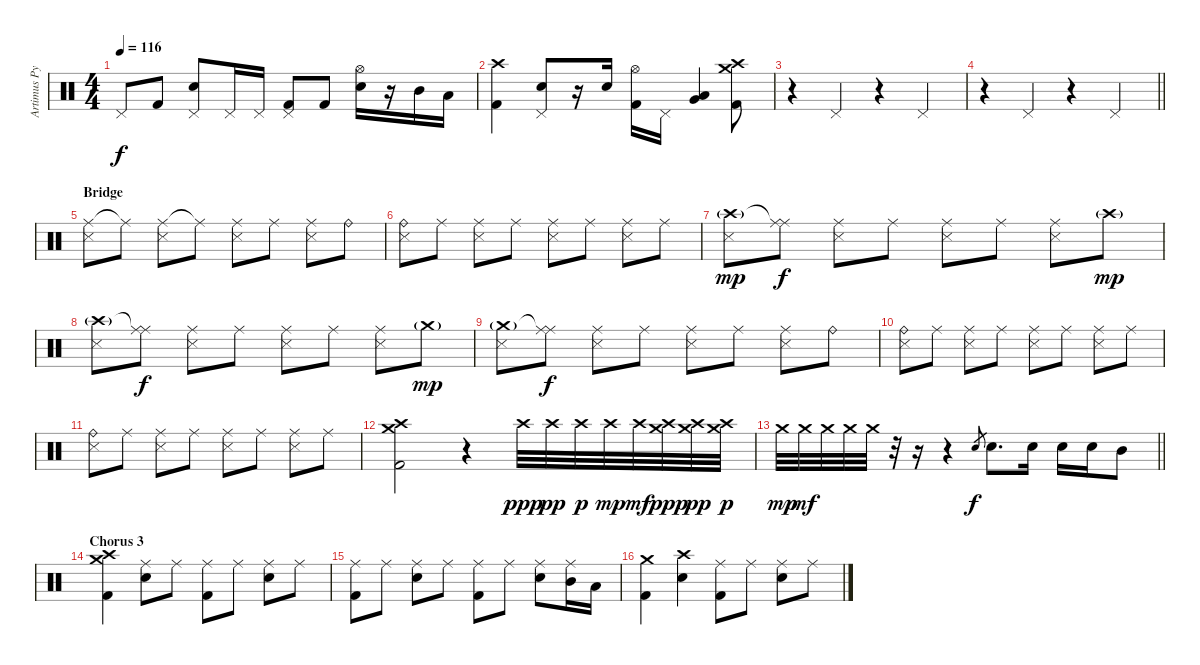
\track ("Artimus Pyle - Drums and Percussion" "Artimus Py") {instrument percussion}
\staff {score}
\articulation defaults
\ts (4 4)
\tempo 116
\clef neutral
\ks c "Pedal Hi-Hat (hit)".8{dy f} "Kick (hit) 2".8
("Snare (hit) 2" "Pedal Hi-Hat (hit)").8 "Pedal Hi-Hat (hit)".16 "Pedal Hi-Hat (hit)".16 ("Pedal Hi-Hat (hit)" "Kick (hit) 2").8 "Kick (hit) 2".8 ("Snare (hit) 2" "Hi-Hat (open)").16 r.16 "Mid Tom (hit)".16 "Low Floor Tom (hit)".16 |
("Crash high (hit)" "Kick (hit) 2").4 ("Snare (hit) 2" "Pedal Hi-Hat (hit)").8 r.16 "Snare (hit) 2".16 ("Hi-Hat (open)" "Kick (hit) 2").16 "Pedal Hi-Hat (hit)".16 ("Low Floor Tom (hit)" "Very Low Tom (hit)").4 ("Crash medium (hit)" "Crash high (hit)" "Kick (hit) 2").8 |
r.4 "Pedal Hi-Hat (hit)".4 r.4 "Pedal Hi-Hat (hit)".4 |
\barLineRight lightlight
r.4 "Pedal Hi-Hat (hit)".4 r.4 "Pedal Hi-Hat (hit)".4 |
\section ("" "Bridge")
("Ride (middle)" "Snare (side stick) 3").8 "Ride (middle)"{t}.8 ("Ride (middle)" "Snare (side stick) 3").8 "Ride (middle)"{t}.8 ("Ride (middle)" "Snare (side stick) 3").8 "Ride (middle)".8 ("Ride (middle)" "Snare (side stick) 3").8 "Ride (bell)".8 |
("Ride (bell)" "Snare (side stick) 3").8 "Ride (middle)".8 ("Ride (middle)" "Snare (side stick) 3").8 "Ride (middle)".8 ("Ride (middle)" "Snare (side stick) 3").8 "Ride (middle)".8 ("Ride (middle)" "Snare (side stick) 3").8 "Ride (middle)".8 |
("Crash high (hit)"{g} "Snare (side stick) 3").8{dy mp} ("Ride (middle)"{t} "Ride (middle)").8{dy f} ("Ride (middle)" "Snare (side stick) 3").8 "Ride (middle)".8 ("Ride (middle)" "Snare (side stick) 3").8 "Ride (middle)".8 ("Ride (middle)" "Snare (side stick) 3").8 "Crash high (hit)"{g}.8{dy mp} |
("Crash high (hit)"{g} "Snare (side stick) 3").8 ("Ride (middle)"{t} "Ride (middle)").8{dy f} ("Ride (middle)" "Snare (side stick) 3").8 "Ride (middle)".8 ("Ride (middle)" "Snare (side stick) 3").8 "Ride (middle)".8 ("Ride (middle)" "Snare (side stick) 3").8 "Crash medium (hit)"{g}.8{dy mp} |
("Crash medium (hit)"{g} "Snare (side stick) 3").8 ("Ride (middle)"{t} "Ride (middle)").8{dy f} ("Ride (middle)" "Snare (side stick) 3").8 "Ride (middle)".8 ("Ride (middle)" "Snare (side stick) 3").8 "Ride (middle)".8 ("Ride (middle)" "Snare (side stick) 3").8 "Ride (bell)".8 |
("Ride (bell)" "Snare (side stick) 3").8 "Ride (middle)".8 ("Ride (middle)" "Snare (side stick) 3").8 "Ride (middle)".8 ("Ride (middle)" "Snare (side stick) 3").8 "Ride (middle)".8 ("Ride (middle)" "Snare (side stick) 3").8 "Ride (middle)".8 |
("Ride (bell)" "Snare (side stick) 3").8 "Ride (middle)".8 ("Ride (middle)" "Snare (side stick) 3").8 "Ride (middle)".8 ("Ride (middle)" "Snare (side stick) 3").8 "Ride (middle)".8 ("Ride (middle)" "Snare (side stick) 3").8 "Ride (middle)".8 |
("Crash medium (hit)" "Crash high (hit)" "Kick (hit) 2").2 r.4 "Crash high (hit)".32{dy ppp} "Crash high (hit)".32{dy pp} "Crash high (hit)".32{dy p} "Crash high (hit)".32{dy mp} "Crash high (hit)".32{dy mf} ("Crash high (hit)" "Crash medium (hit)").32{dy ppp} ("Crash high (hit)" "Crash medium (hit)").32{dy pp} ("Crash high (hit)" "Crash medium (hit)").32{dy p} |
\barLineRight lightlight "Crash medium (hit)".32{dy mp} "Crash medium (hit)".32{dy mf} "Crash medium (hit)".32 "Crash medium (hit)".32 "Crash medium (hit)".32
r.32 r.16 r.4 "Snare (hit) 2".8{gr dy f} "Snare (hit) 2".8{d} "Snare (hit) 2".16 "Snare (hit) 2".16 "Snare (hit) 2".16 "Mid Tom (hit)".8 |
\section ("" "Chorus 3")
("Crash medium (hit)" "Crash high (hit)" "Kick (hit) 2").4 ("Ride (middle)" "Snare (hit) 2").8 "Ride (middle)".8 ("Ride (middle)" "Kick (hit) 2").8 "Ride (middle)".8 ("Ride (middle)" "Snare (hit) 2").8 "Ride (middle)".8 |
("Ride (middle)" "Kick (hit) 2").8 "Ride (middle)".8 ("Ride (middle)" "Snare (hit) 2").8 "Ride (middle)".8 ("Ride (middle)" "Kick (hit) 2").8 "Ride (middle)".8 ("Ride (middle)" "Snare (hit) 2").8 ("Ride (middle)" "Mid Tom (hit)").16 "Low Floor Tom (hit)".16 |
("Crash medium (hit)" "Kick (hit) 2").4 ("Crash high (hit)" "Snare (hit) 2").4 ("Ride (middle)" "Kick (hit) 2").8 "Ride (middle)".8 ("Ride (middle)" "Snare (hit) 2").8 "Ride (middle)".8
